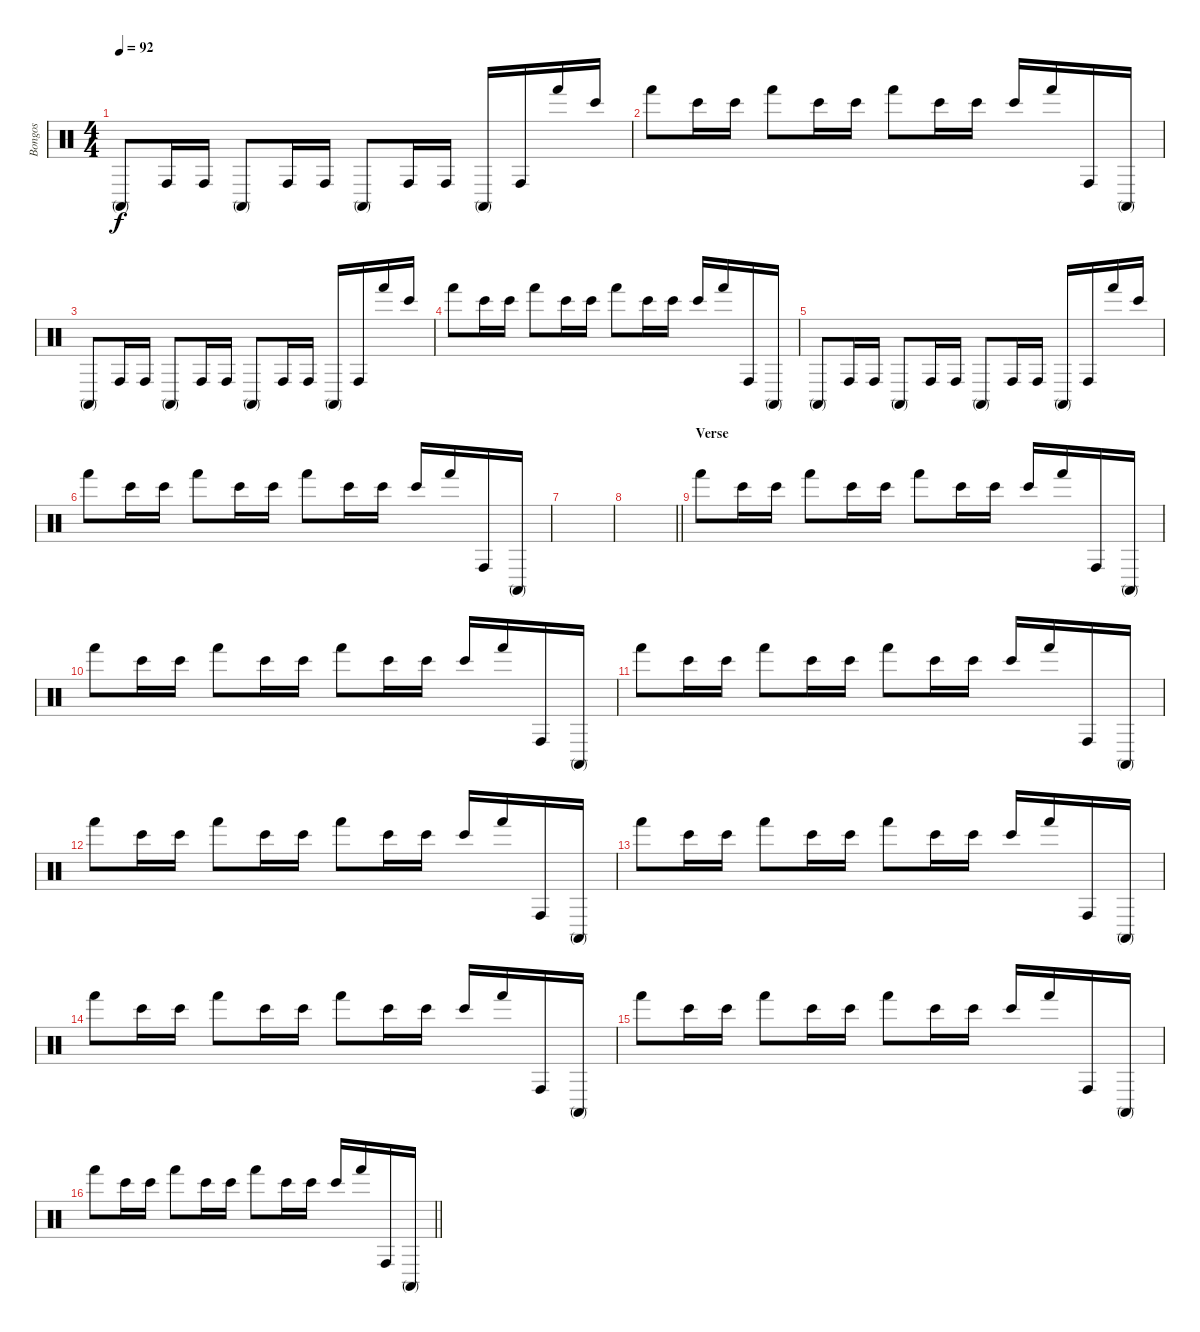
\track ("Bongos" "Bongos") {instrument percussion}
\staff {score}
\articulation defaults
\ts (4 4)
\tempo 92
\clef neutral
\ks c "Conga high (mute)".8{dy f} "Conga high (hit)".16 "Conga high (hit)".16 "Conga high (mute)".8 "Conga high (hit)".16 "Conga high (hit)".16 "Conga high (mute)".8 "Conga high (hit)".16 "Conga high (hit)".16 "Conga high (mute)".16 "Conga high (hit)".16 "Hand (hit)".16 "Bongo High (hit)".16
|
"Hand (hit)".8 "Bongo High (hit)".16 "Bongo High (hit)".16 "Hand (hit)".8 "Bongo High (hit)".16 "Bongo High (hit)".16 "Hand (hit)".8 "Bongo High (hit)".16 "Bongo High (hit)".16 "Bongo High (hit)".16 "Hand (hit)".16 "Conga high (hit)".16 "Conga high (mute)".16 |
"Conga high (mute)".8 "Conga high (hit)".16 "Conga high (hit)".16 "Conga high (mute)".8 "Conga high (hit)".16 "Conga high (hit)".16 "Conga high (mute)".8 "Conga high (hit)".16 "Conga high (hit)".16 "Conga high (mute)".16 "Conga high (hit)".16 "Hand (hit)".16 "Bongo High (hit)".16 |
"Hand (hit)".8 "Bongo High (hit)".16 "Bongo High (hit)".16 "Hand (hit)".8 "Bongo High (hit)".16 "Bongo High (hit)".16 "Hand (hit)".8 "Bongo High (hit)".16 "Bongo High (hit)".16 "Bongo High (hit)".16 "Hand (hit)".16 "Conga high (hit)".16 "Conga high (mute)".16 |
"Conga high (mute)".8 "Conga high (hit)".16 "Conga high (hit)".16 "Conga high (mute)".8 "Conga high (hit)".16 "Conga high (hit)".16 "Conga high (mute)".8 "Conga high (hit)".16 "Conga high (hit)".16 "Conga high (mute)".16 "Conga high (hit)".16 "Hand (hit)".16 "Bongo High (hit)".16 |
"Hand (hit)".8 "Bongo High (hit)".16 "Bongo High (hit)".16 "Hand (hit)".8 "Bongo High (hit)".16 "Bongo High (hit)".16 "Hand (hit)".8 "Bongo High (hit)".16 "Bongo High (hit)".16 "Bongo High (hit)".16 "Hand (hit)".16 "Conga high (hit)".16 "Conga high (mute)".16 |
|
\barLineRight lightlight
|
\section ("" "Verse")
"Hand (hit)".8{volume 8} "Bongo High (hit)".16 "Bongo High (hit)".16 "Hand (hit)".8 "Bongo High (hit)".16 "Bongo High (hit)".16 "Hand (hit)".8 "Bongo High (hit)".16 "Bongo High (hit)".16 "Bongo High (hit)".16 "Hand (hit)".16 "Conga high (hit)".16 "Conga high (mute)".16 |
"Hand (hit)".8 "Bongo High (hit)".16 "Bongo High (hit)".16 "Hand (hit)".8 "Bongo High (hit)".16 "Bongo High (hit)".16 "Hand (hit)".8 "Bongo High (hit)".16 "Bongo High (hit)".16 "Bongo High (hit)".16 "Hand (hit)".16 "Conga high (hit)".16 "Conga high (mute)".16 |
"Hand (hit)".8{volume 8} "Bongo High (hit)".16 "Bongo High (hit)".16 "Hand (hit)".8 "Bongo High (hit)".16 "Bongo High (hit)".16 "Hand (hit)".8 "Bongo High (hit)".16 "Bongo High (hit)".16 "Bongo High (hit)".16 "Hand (hit)".16 "Conga high (hit)".16 "Conga high (mute)".16 |
"Hand (hit)".8 "Bongo High (hit)".16 "Bongo High (hit)".16 "Hand (hit)".8 "Bongo High (hit)".16 "Bongo High (hit)".16 "Hand (hit)".8 "Bongo High (hit)".16 "Bongo High (hit)".16 "Bongo High (hit)".16 "Hand (hit)".16 "Conga high (hit)".16 "Conga high (mute)".16 |
"Hand (hit)".8{volume 8} "Bongo High (hit)".16 "Bongo High (hit)".16 "Hand (hit)".8 "Bongo High (hit)".16 "Bongo High (hit)".16 "Hand (hit)".8 "Bongo High (hit)".16 "Bongo High (hit)".16 "Bongo High (hit)".16 "Hand (hit)".16 "Conga high (hit)".16 "Conga high (mute)".16 |
"Hand (hit)".8 "Bongo High (hit)".16 "Bongo High (hit)".16 "Hand (hit)".8 "Bongo High (hit)".16 "Bongo High (hit)".16 "Hand (hit)".8 "Bongo High (hit)".16 "Bongo High (hit)".16 "Bongo High (hit)".16 "Hand (hit)".16 "Conga high (hit)".16 "Conga high (mute)".16 |
"Hand (hit)".8{volume 8} "Bongo High (hit)".16 "Bongo High (hit)".16 "Hand (hit)".8 "Bongo High (hit)".16 "Bongo High (hit)".16 "Hand (hit)".8 "Bongo High (hit)".16 "Bongo High (hit)".16 "Bongo High (hit)".16 "Hand (hit)".16 "Conga high (hit)".16 "Conga high (mute)".16 |
\barLineRight lightlight "Hand (hit)".8 "Bongo High (hit)".16 "Bongo High (hit)".16 "Hand (hit)".8 "Bongo High (hit)".16 "Bongo High (hit)".16 "Hand (hit)".8 "Bongo High (hit)".16 "Bongo High (hit)".16 "Bongo High (hit)".16 "Hand (hit)".16 "Conga high (hit)".16 "Conga high (mute)".16
